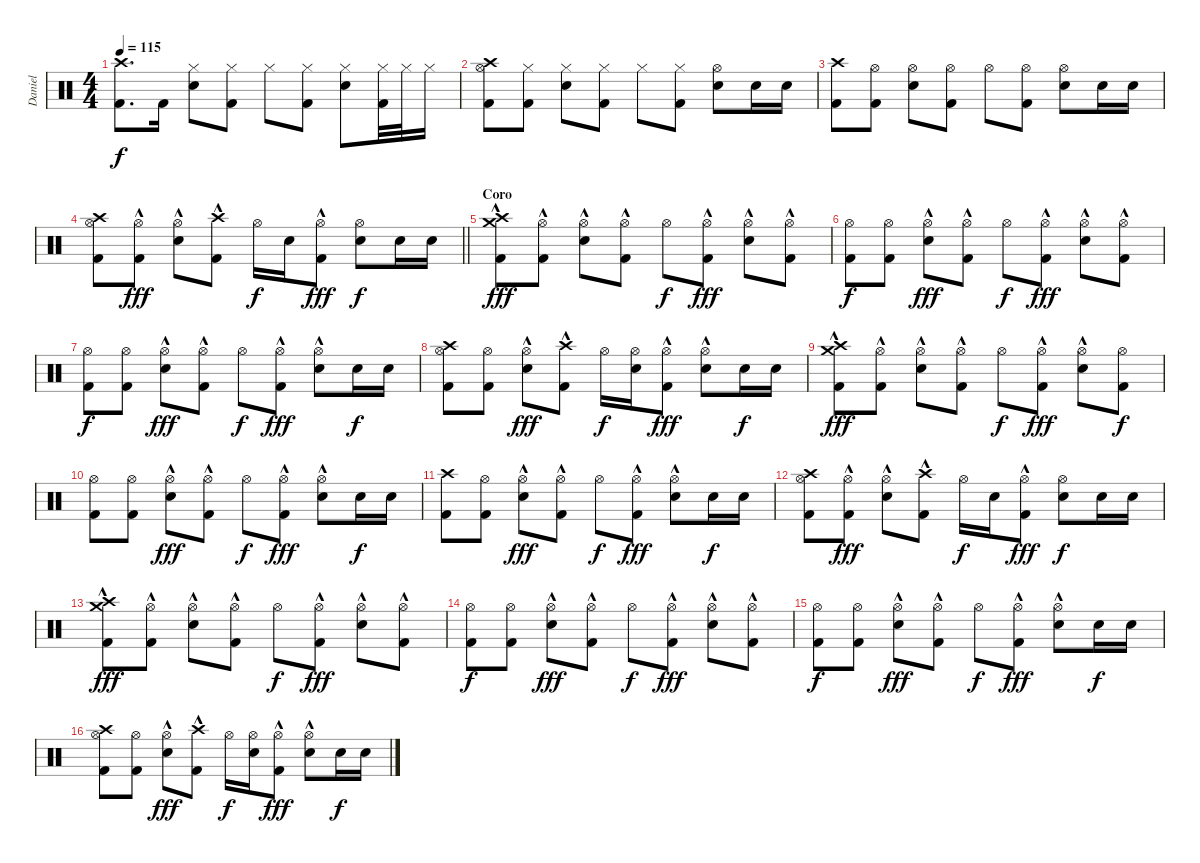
\track ("Daniel" "Daniel") {instrument percussion}
\staff {score}
\articulation defaults
\ts (4 4)
\tempo 115
\clef neutral
\ks c
("Crash high (hit)" "Kick (hit) 2").8{d dy f} "Kick (hit) 2".16 ("Hi-Hat (closed)" "Snare (hit) 2").8 ("Hi-Hat (closed)" "Kick (hit) 2").8 "Hi-Hat (closed)".8 ("Hi-Hat (closed)" "Kick (hit) 2").8 ("Hi-Hat (closed)" "Snare (hit) 2").8 ("Hi-Hat (closed)" "Kick (hit) 2").32 "Hi-Hat (closed)".32 "Hi-Hat (closed)".16 |
("Crash high (hit)" "Hi-Hat (open)" "Kick (hit) 2").8 ("Hi-Hat (closed)" "Kick (hit) 2").8 ("Hi-Hat (closed)" "Snare (hit) 2").8 ("Hi-Hat (closed)" "Kick (hit) 2").8 "Hi-Hat (closed)".8 ("Hi-Hat (closed)" "Kick (hit) 2").8 ("Hi-Hat (open)" "Snare (hit) 2").8 "Snare (hit) 2".16 "Snare (hit) 2".16 |
("Crash high (hit)" "Kick (hit) 2").8 ("Hi-Hat (open)" "Kick (hit) 2").8 ("Hi-Hat (open)" "Snare (hit) 2").8 ("Hi-Hat (open)" "Kick (hit) 2").8 "Hi-Hat (open)".8 ("Hi-Hat (open)" "Kick (hit) 2").8 ("Hi-Hat (open)" "Snare (hit) 2").8 "Snare (hit) 2".16 "Snare (hit) 2".16 |
\barLineRight lightlight
("Crash high (hit)" "Hi-Hat (open)" "Kick (hit) 2").8 ("Hi-Hat (open)" "Kick (hit) 2"{hac}).8{dy fff} ("Hi-Hat (open)"{hac} "Snare (hit) 2").8 ("Crash high (hit)" "Kick (hit) 2"{hac}).8 "Hi-Hat (open)".16{dy f} "Snare (hit) 2".16 ("Hi-Hat (open)" "Kick (hit) 2"{hac}).8{dy fff} ("Hi-Hat (open)" "Snare (hit) 2").8{dy f} "Snare (hit) 2".16 "Snare (hit) 2".16 |
\section ("" "Coro")
("Crash medium (hit)" "Crash high (hit)" "Kick (hit) 2"{hac}).8{dy fff} ("Hi-Hat (open)" "Kick (hit) 2"{hac}).8 ("Hi-Hat (open)"{hac} "Snare (hit) 2").8 ("Hi-Hat (open)" "Kick (hit) 2"{hac}).8 "Hi-Hat (open)".8{dy f} ("Hi-Hat (open)" "Kick (hit) 2"{hac}).8{dy fff} ("Hi-Hat (open)"{hac} "Snare (hit) 2").8 ("Hi-Hat (open)" "Kick (hit) 2"{hac}).8 |
("Hi-Hat (open)" "Kick (hit) 2").8{dy f} ("Hi-Hat (open)" "Kick (hit) 2").8 ("Hi-Hat (open)"{hac} "Snare (hit) 2").8{dy fff} ("Hi-Hat (open)" "Kick (hit) 2"{hac}).8 "Hi-Hat (open)".8{dy f} ("Hi-Hat (open)" "Kick (hit) 2"{hac}).8{dy fff} ("Hi-Hat (open)"{hac} "Snare (hit) 2").8 ("Hi-Hat (open)" "Kick (hit) 2"{hac}).8 |
("Hi-Hat (open)" "Kick (hit) 2").8{dy f} ("Hi-Hat (open)" "Kick (hit) 2").8 ("Hi-Hat (open)"{hac} "Snare (hit) 2").8{dy fff} ("Hi-Hat (open)" "Kick (hit) 2"{hac}).8 "Hi-Hat (open)".8{dy f} ("Hi-Hat (open)" "Kick (hit) 2"{hac}).8{dy fff} ("Hi-Hat (open)"{hac} "Snare (hit) 2").8 "Snare (hit) 2".16{dy f} "Snare (hit) 2".16 |
("Crash high (hit)" "Hi-Hat (open)" "Kick (hit) 2").8 ("Hi-Hat (open)" "Kick (hit) 2").8 ("Hi-Hat (open)"{hac} "Snare (hit) 2").8{dy fff} ("Crash high (hit)" "Kick (hit) 2"{hac}).8 "Hi-Hat (open)".16{dy f} ("Hi-Hat (open)" "Snare (hit) 2").16 ("Hi-Hat (open)" "Kick (hit) 2"{hac}).8{dy fff} ("Hi-Hat (open)"{hac} "Snare (hit) 2").8 "Snare (hit) 2".16{dy f} "Snare (hit) 2".16 |
("Crash medium (hit)" "Crash high (hit)" "Kick (hit) 2"{hac}).8{dy fff} ("Hi-Hat (open)" "Kick (hit) 2"{hac}).8 ("Hi-Hat (open)"{hac} "Snare (hit) 2").8 ("Hi-Hat (open)" "Kick (hit) 2"{hac}).8 "Hi-Hat (open)".8{dy f} ("Hi-Hat (open)" "Kick (hit) 2"{hac}).8{dy fff} ("Hi-Hat (open)"{hac} "Snare (hit) 2").8 ("Hi-Hat (open)" "Kick (hit) 2").8{dy f} |
("Hi-Hat (open)" "Kick (hit) 2").8 ("Hi-Hat (open)" "Kick (hit) 2").8 ("Hi-Hat (open)"{hac} "Snare (hit) 2").8{dy fff} ("Hi-Hat (open)" "Kick (hit) 2"{hac}).8 "Hi-Hat (open)".8{dy f} ("Hi-Hat (open)" "Kick (hit) 2"{hac}).8{dy fff} ("Hi-Hat (open)"{hac} "Snare (hit) 2").8 "Snare (hit) 2".16{dy f} "Snare (hit) 2".16 |
("Crash high (hit)" "Kick (hit) 2").8 ("Hi-Hat (open)" "Kick (hit) 2").8 ("Hi-Hat (open)"{hac} "Snare (hit) 2").8{dy fff} ("Hi-Hat (open)" "Kick (hit) 2"{hac}).8 "Hi-Hat (open)".8{dy f} ("Hi-Hat (open)" "Kick (hit) 2"{hac}).8{dy fff} ("Hi-Hat (open)"{hac} "Snare (hit) 2").8 "Snare (hit) 2".16{dy f} "Snare (hit) 2".16 |
("Crash high (hit)" "Hi-Hat (open)" "Kick (hit) 2").8 ("Hi-Hat (open)" "Kick (hit) 2"{hac}).8{dy fff} ("Hi-Hat (open)"{hac} "Snare (hit) 2").8 ("Crash high (hit)" "Kick (hit) 2"{hac}).8 "Hi-Hat (open)".16{dy f} "Snare (hit) 2".16 ("Hi-Hat (open)" "Kick (hit) 2"{hac}).8{dy fff} ("Hi-Hat (open)" "Snare (hit) 2").8{dy f} "Snare (hit) 2".16 "Snare (hit) 2".16 |
("Crash medium (hit)" "Crash high (hit)" "Kick (hit) 2"{hac}).8{dy fff} ("Hi-Hat (open)" "Kick (hit) 2"{hac}).8 ("Hi-Hat (open)"{hac} "Snare (hit) 2").8 ("Hi-Hat (open)" "Kick (hit) 2"{hac}).8 "Hi-Hat (open)".8{dy f} ("Hi-Hat (open)" "Kick (hit) 2"{hac}).8{dy fff} ("Hi-Hat (open)"{hac} "Snare (hit) 2").8 ("Hi-Hat (open)" "Kick (hit) 2"{hac}).8 |
("Hi-Hat (open)" "Kick (hit) 2").8{dy f} ("Hi-Hat (open)" "Kick (hit) 2").8 ("Hi-Hat (open)"{hac} "Snare (hit) 2").8{dy fff} ("Hi-Hat (open)" "Kick (hit) 2"{hac}).8 "Hi-Hat (open)".8{dy f} ("Hi-Hat (open)" "Kick (hit) 2"{hac}).8{dy fff} ("Hi-Hat (open)"{hac} "Snare (hit) 2").8 ("Hi-Hat (open)" "Kick (hit) 2"{hac}).8 |
("Hi-Hat (open)" "Kick (hit) 2").8{dy f} ("Hi-Hat (open)" "Kick (hit) 2").8 ("Hi-Hat (open)"{hac} "Snare (hit) 2").8{dy fff} ("Hi-Hat (open)" "Kick (hit) 2"{hac}).8 "Hi-Hat (open)".8{dy f} ("Hi-Hat (open)" "Kick (hit) 2"{hac}).8{dy fff} ("Hi-Hat (open)"{hac} "Snare (hit) 2").8 "Snare (hit) 2".16{dy f} "Snare (hit) 2".16 |
("Crash high (hit)" "Hi-Hat (open)" "Kick (hit) 2").8 ("Hi-Hat (open)" "Kick (hit) 2").8 ("Hi-Hat (open)"{hac} "Snare (hit) 2").8{dy fff} ("Crash high (hit)" "Kick (hit) 2"{hac}).8 "Hi-Hat (open)".16{dy f} ("Hi-Hat (open)" "Snare (hit) 2").16 ("Hi-Hat (open)" "Kick (hit) 2"{hac}).8{dy fff} ("Hi-Hat (open)"{hac} "Snare (hit) 2").8 "Snare (hit) 2".16{dy f} "Snare (hit) 2".16
